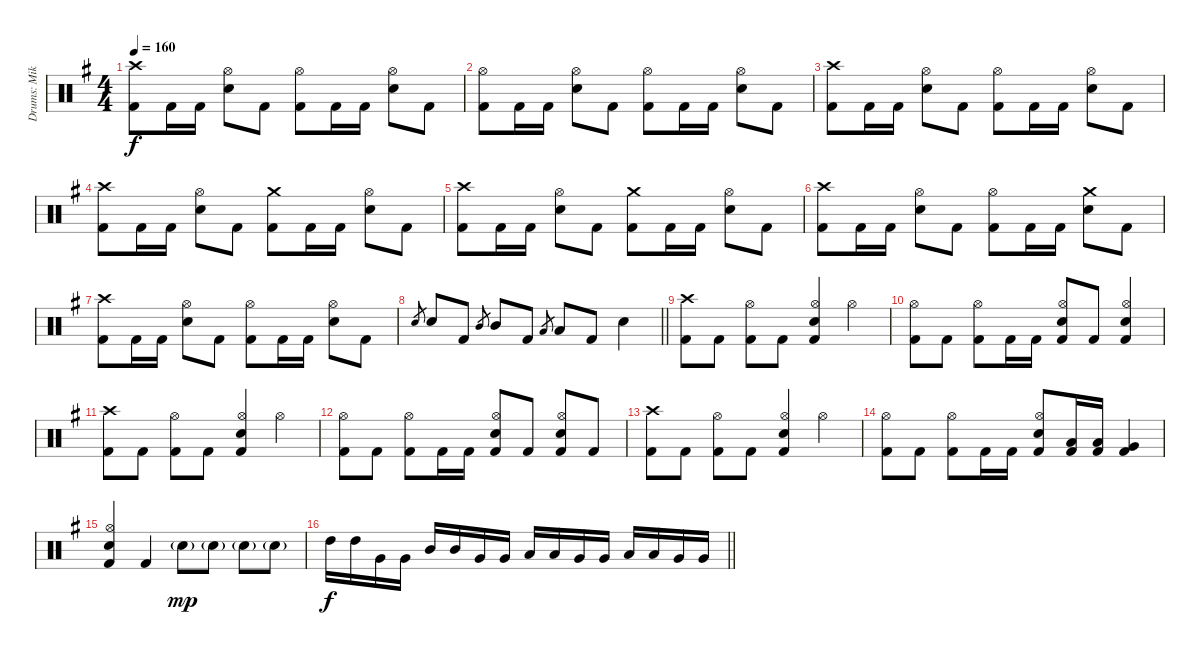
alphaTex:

\track ("Drums: Mikko Korsbäck" "Drums: Mik") {instrument percussion}
\staff {score}
\articulation defaults
\ts (4 4)
\tempo 160
\clef neutral
\ks eminor
("Crash high (hit)" "Kick (hit) 2").8{dy f} "Kick (hit) 2".16 "Kick (hit) 2".16 ("Hi-Hat (open)" "Electric Snare (hit)").8 "Kick (hit) 2".8 ("Hi-Hat (open)" "Kick (hit) 2").8 "Kick (hit) 2".16 "Kick (hit) 2".16 ("Hi-Hat (open)" "Electric Snare (hit)").8 "Kick (hit) 2".8 |
("Hi-Hat (open)" "Kick (hit) 2").8 "Kick (hit) 2".16 "Kick (hit) 2".16 ("Hi-Hat (open)" "Electric Snare (hit)").8 "Kick (hit) 2".8 ("Hi-Hat (open)" "Kick (hit) 2").8 "Kick (hit) 2".16 "Kick (hit) 2".16 ("Hi-Hat (open)" "Electric Snare (hit)").8 "Kick (hit) 2".8 |
("Crash high (hit)" "Kick (hit) 2").8 "Kick (hit) 2".16 "Kick (hit) 2".16 ("Hi-Hat (open)" "Electric Snare (hit)").8 "Kick (hit) 2".8 ("Hi-Hat (open)" "Kick (hit) 2").8 "Kick (hit) 2".16 "Kick (hit) 2".16 ("Hi-Hat (open)" "Electric Snare (hit)").8 "Kick (hit) 2".8 |
("Crash high (hit)" "Kick (hit) 2").8 "Kick (hit) 2".16 "Kick (hit) 2".16 ("Hi-Hat (open)" "Electric Snare (hit)").8 "Kick (hit) 2".8 ("Crash medium (hit)" "Kick (hit) 2").8 "Kick (hit) 2".16 "Kick (hit) 2".16 ("Hi-Hat (open)" "Electric Snare (hit)").8 "Kick (hit) 2".8 |
("Crash high (hit)" "Kick (hit) 2").8 "Kick (hit) 2".16 "Kick (hit) 2".16 ("Hi-Hat (open)" "Electric Snare (hit)").8 "Kick (hit) 2".8 ("Crash medium (hit)" "Kick (hit) 2").8 "Kick (hit) 2".16 "Kick (hit) 2".16 ("Hi-Hat (open)" "Electric Snare (hit)").8 "Kick (hit) 2".8 |
("Crash high (hit)" "Kick (hit) 2").8 "Kick (hit) 2".16 "Kick (hit) 2".16 ("Hi-Hat (open)" "Electric Snare (hit)").8 "Kick (hit) 2".8 ("Hi-Hat (open)" "Kick (hit) 2").8 "Kick (hit) 2".16 "Kick (hit) 2".16 ("Crash medium (hit)" "Electric Snare (hit)").8 "Kick (hit) 2".8 |
("Crash high (hit)" "Kick (hit) 2").8 "Kick (hit) 2".16 "Kick (hit) 2".16 ("Hi-Hat (open)" "Electric Snare (hit)").8 "Kick (hit) 2".8 ("Hi-Hat (open)" "Kick (hit) 2").8 "Kick (hit) 2".16 "Kick (hit) 2".16 ("Hi-Hat (open)" "Electric Snare (hit)").8 "Kick (hit) 2".8 |
\barLineRight lightlight "Electric Snare (hit)".8{gr} "Electric Snare (hit)".8 "Kick (hit) 2".8 "Mid Tom (hit)".8{gr} "Mid Tom (hit)".8 "Kick (hit) 2".8 "Low Tom (hit)".8{gr} "Low Tom (hit)".8 "Kick (hit) 2".8 "Electric Snare (hit)".4
|
("Crash high (hit)" "Kick (hit) 2").8 "Kick (hit) 2".8 ("Hi-Hat (open)" "Kick (hit) 2").8 "Kick (hit) 2".8 ("Hi-Hat (open)" "Electric Snare (hit)" "Kick (hit) 2").4 "Hi-Hat (open)".4 |
("Hi-Hat (open)" "Kick (hit) 2").8 "Kick (hit) 2".8 ("Hi-Hat (open)" "Kick (hit) 2").8 "Kick (hit) 2".16 "Kick (hit) 2".16 ("Hi-Hat (open)" "Electric Snare (hit)" "Kick (hit) 2").8 "Kick (hit) 2".8 ("Hi-Hat (open)" "Electric Snare (hit)" "Kick (hit) 2").4 |
("Crash high (hit)" "Kick (hit) 2").8 "Kick (hit) 2".8 ("Hi-Hat (open)" "Kick (hit) 2").8 "Kick (hit) 2".8 ("Hi-Hat (open)" "Electric Snare (hit)" "Kick (hit) 2").4 "Hi-Hat (open)".4 |
("Hi-Hat (open)" "Kick (hit) 2").8 "Kick (hit) 2".8 ("Hi-Hat (open)" "Kick (hit) 2").8 "Kick (hit) 2".16 "Kick (hit) 2".16 ("Hi-Hat (open)" "Electric Snare (hit)" "Kick (hit) 2").8 "Kick (hit) 2".8 ("Hi-Hat (open)" "Electric Snare (hit)" "Kick (hit) 2").8 "Kick (hit) 2".8 |
("Crash high (hit)" "Kick (hit) 2").8 "Kick (hit) 2".8 ("Hi-Hat (open)" "Kick (hit) 2").8 "Kick (hit) 2".8 ("Hi-Hat (open)" "Electric Snare (hit)" "Kick (hit) 2").4 "Hi-Hat (open)".4 |
("Hi-Hat (open)" "Kick (hit) 2").8 "Kick (hit) 2".8 ("Hi-Hat (open)" "Kick (hit) 2").8 "Kick (hit) 2".16 "Kick (hit) 2".16 ("Hi-Hat (open)" "Electric Snare (hit)" "Kick (hit) 2").8 ("Low Tom (hit)" "Kick (hit) 2").16 ("Low Tom (hit)" "Kick (hit) 2").16 ("Very Low Tom (hit)" "Kick (hit) 2").4 |
("Hi-Hat (open)" "Electric Snare (hit)" "Kick (hit) 2").4 "Kick (hit) 2".4 "Electric Snare (hit)"{g}.8{dy mp} "Electric Snare (hit)"{g}.8 "Electric Snare (hit)"{g}.8 "Electric Snare (hit)"{g}.8 |
\barLineRight lightlight "High Tom (hit)".16{dy f} "High Tom (hit)".16 "Very Low Tom (hit)".16 "Very Low Tom (hit)".16 "Mid Tom (hit)".16 "Mid Tom (hit)".16 "Very Low Tom (hit)".16 "Very Low Tom (hit)".16 "Low Tom (hit)".16 "Low Tom (hit)".16 "Very Low Tom (hit)".16 "Very Low Tom (hit)".16 "Low Tom (hit)".16 "Low Tom (hit)".16 "Very Low Tom (hit)".16 "Very Low Tom (hit)".16
